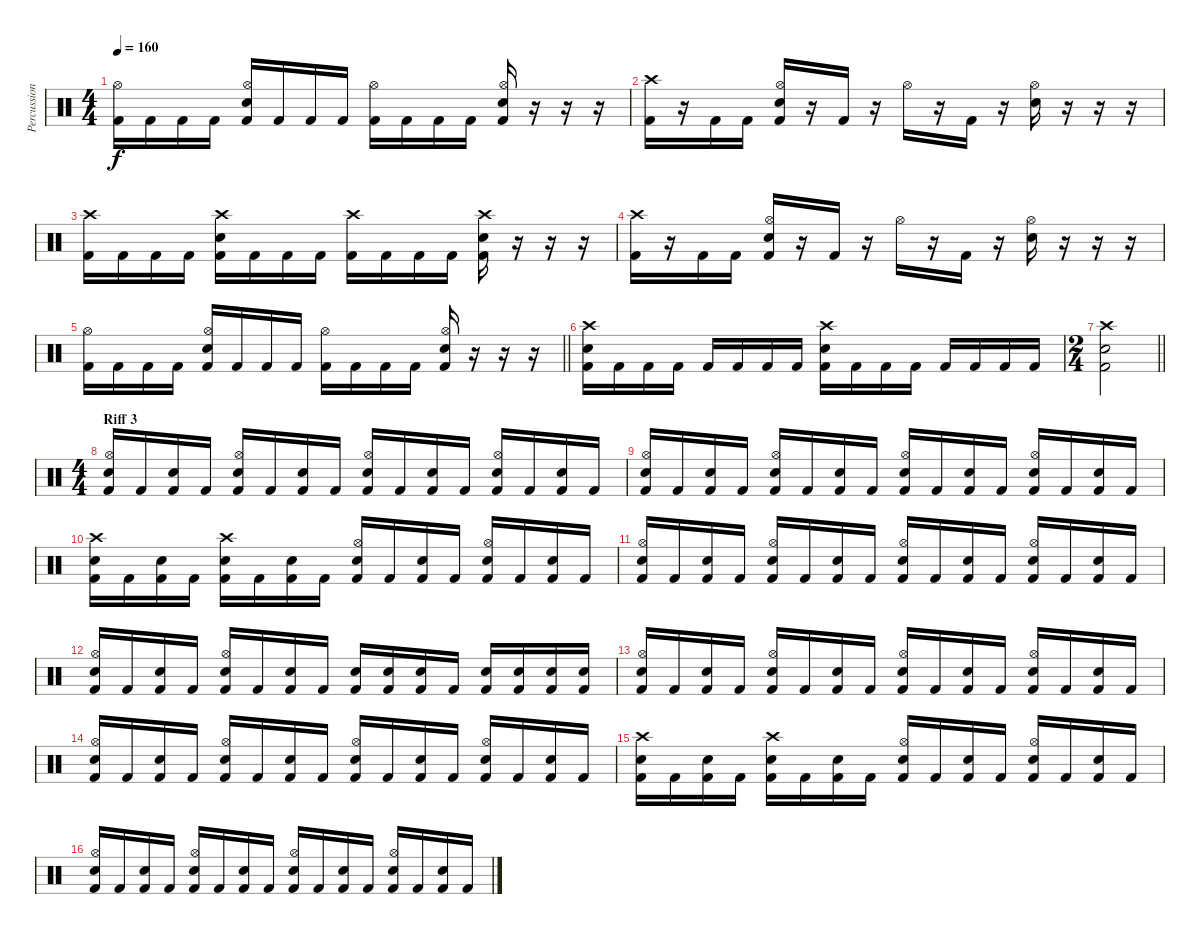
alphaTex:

\track ("Percussions" "Percussion") {instrument percussion bank 1}
\staff {score}
\articulation defaults
\ts (4 4)
\tempo 160
\clef neutral
\ks c
("Kick (hit) 2" "Hi-Hat (open)").16{dy f} "Kick (hit) 2".16 "Kick (hit) 2".16 "Kick (hit) 2".16 ("Kick (hit) 2" "Electric Snare (hit)" "Hi-Hat (open)").16 "Kick (hit) 2".16 "Kick (hit) 2".16 "Kick (hit) 2".16 ("Kick (hit) 2" "Hi-Hat (open)").16 "Kick (hit) 2".16 "Kick (hit) 2".16 "Kick (hit) 2".16 ("Kick (hit) 2" "Electric Snare (hit)" "Hi-Hat (open)").16 r.16 r.16 r.16 |
("Kick (hit) 2" "Crash high (hit)").16 r.16 "Kick (hit) 2".16 "Kick (hit) 2".16 ("Kick (hit) 2" "Electric Snare (hit)" "Hi-Hat (open)").16 r.16 "Kick (hit) 2".16 r.16 "Hi-Hat (open)".16 r.16 "Kick (hit) 2".16 r.16 ("Electric Snare (hit)" "Hi-Hat (open)").16 r.16 r.16 r.16 |
("Kick (hit) 2" "Crash high (hit)").16 "Kick (hit) 2".16 "Kick (hit) 2".16 "Kick (hit) 2".16 ("Kick (hit) 2" "Electric Snare (hit)" "Crash high (hit)").16 "Kick (hit) 2".16 "Kick (hit) 2".16 "Kick (hit) 2".16 ("Kick (hit) 2" "Crash high (hit)").16 "Kick (hit) 2".16 "Kick (hit) 2".16 "Kick (hit) 2".16 ("Kick (hit) 2" "Electric Snare (hit)" "Crash high (hit)").16 r.16 r.16 r.16 |
("Kick (hit) 2" "Crash high (hit)").16 r.16 "Kick (hit) 2".16 "Kick (hit) 2".16 ("Kick (hit) 2" "Electric Snare (hit)" "Hi-Hat (open)").16 r.16 "Kick (hit) 2".16 r.16 "Hi-Hat (open)".16 r.16 "Kick (hit) 2".16 r.16 ("Electric Snare (hit)" "Hi-Hat (open)").16 r.16 r.16 r.16 |
\barLineRight lightlight
("Kick (hit) 2" "Hi-Hat (open)").16 "Kick (hit) 2".16 "Kick (hit) 2".16 "Kick (hit) 2".16 ("Kick (hit) 2" "Electric Snare (hit)" "Hi-Hat (open)").16 "Kick (hit) 2".16 "Kick (hit) 2".16 "Kick (hit) 2".16 ("Kick (hit) 2" "Hi-Hat (open)").16 "Kick (hit) 2".16 "Kick (hit) 2".16 "Kick (hit) 2".16 ("Kick (hit) 2" "Electric Snare (hit)" "Hi-Hat (open)").16 r.16 r.16 r.16 |
("Kick (hit) 2" "Electric Snare (hit)" "Crash high (hit)").16 "Kick (hit) 2".16 "Kick (hit) 2".16 "Kick (hit) 2".16 "Kick (hit) 2".16 "Kick (hit) 2".16 "Kick (hit) 2".16 "Kick (hit) 2".16 ("Kick (hit) 2" "Electric Snare (hit)" "Crash high (hit)").16 "Kick (hit) 2".16 "Kick (hit) 2".16 "Kick (hit) 2".16 "Kick (hit) 2".16 "Kick (hit) 2".16 "Kick (hit) 2".16 "Kick (hit) 2".16 |
\ts (2 4)
\barLineRight lightlight
("Kick (hit) 2" "Electric Snare (hit)" "Crash high (hit)").2 |
\ts (4 4)
\section ("" "Riff 3")
("Kick (hit) 2" "Electric Snare (hit)" "Hi-Hat (open)").16 "Kick (hit) 2".16 ("Kick (hit) 2" "Electric Snare (hit)").16 "Kick (hit) 2".16 ("Kick (hit) 2" "Electric Snare (hit)" "Hi-Hat (open)").16 "Kick (hit) 2".16 ("Kick (hit) 2" "Electric Snare (hit)").16 "Kick (hit) 2".16 ("Kick (hit) 2" "Electric Snare (hit)" "Hi-Hat (open)").16 "Kick (hit) 2".16 ("Kick (hit) 2" "Electric Snare (hit)").16 "Kick (hit) 2".16 ("Kick (hit) 2" "Electric Snare (hit)" "Hi-Hat (open)").16 "Kick (hit) 2".16 ("Kick (hit) 2" "Electric Snare (hit)").16 "Kick (hit) 2".16 |
("Kick (hit) 2" "Electric Snare (hit)" "Hi-Hat (open)").16 "Kick (hit) 2".16 ("Kick (hit) 2" "Electric Snare (hit)").16 "Kick (hit) 2".16 ("Kick (hit) 2" "Electric Snare (hit)" "Hi-Hat (open)").16 "Kick (hit) 2".16 ("Kick (hit) 2" "Electric Snare (hit)").16 "Kick (hit) 2".16 ("Kick (hit) 2" "Electric Snare (hit)" "Hi-Hat (open)").16 "Kick (hit) 2".16 ("Kick (hit) 2" "Electric Snare (hit)").16 "Kick (hit) 2".16 ("Kick (hit) 2" "Electric Snare (hit)" "Hi-Hat (open)").16 "Kick (hit) 2".16 ("Kick (hit) 2" "Electric Snare (hit)").16 "Kick (hit) 2".16 |
("Kick (hit) 2" "Electric Snare (hit)" "Crash high (hit)").16 "Kick (hit) 2".16 ("Kick (hit) 2" "Electric Snare (hit)").16 "Kick (hit) 2".16 ("Kick (hit) 2" "Electric Snare (hit)" "Crash high (hit)").16 "Kick (hit) 2".16 ("Kick (hit) 2" "Electric Snare (hit)").16 "Kick (hit) 2".16 ("Kick (hit) 2" "Electric Snare (hit)" "Hi-Hat (open)").16 "Kick (hit) 2".16 ("Kick (hit) 2" "Electric Snare (hit)").16 "Kick (hit) 2".16 ("Kick (hit) 2" "Electric Snare (hit)" "Hi-Hat (open)").16 "Kick (hit) 2".16 ("Kick (hit) 2" "Electric Snare (hit)").16 "Kick (hit) 2".16 |
("Kick (hit) 2" "Electric Snare (hit)" "Hi-Hat (open)").16 "Kick (hit) 2".16 ("Kick (hit) 2" "Electric Snare (hit)").16 "Kick (hit) 2".16 ("Kick (hit) 2" "Electric Snare (hit)" "Hi-Hat (open)").16 "Kick (hit) 2".16 ("Kick (hit) 2" "Electric Snare (hit)").16 "Kick (hit) 2".16 ("Kick (hit) 2" "Electric Snare (hit)" "Hi-Hat (open)").16 "Kick (hit) 2".16 ("Kick (hit) 2" "Electric Snare (hit)").16 "Kick (hit) 2".16 ("Kick (hit) 2" "Electric Snare (hit)" "Hi-Hat (open)").16 "Kick (hit) 2".16 ("Kick (hit) 2" "Electric Snare (hit)").16 "Kick (hit) 2".16 |
("Kick (hit) 2" "Electric Snare (hit)" "Hi-Hat (open)").16 "Kick (hit) 2".16 ("Kick (hit) 2" "Electric Snare (hit)").16 "Kick (hit) 2".16 ("Kick (hit) 2" "Electric Snare (hit)" "Hi-Hat (open)").16 "Kick (hit) 2".16 ("Kick (hit) 2" "Electric Snare (hit)").16 "Kick (hit) 2".16 ("Kick (hit) 2" "Electric Snare (hit)").16 ("Kick (hit) 2" "Electric Snare (hit)").16 ("Kick (hit) 2" "Electric Snare (hit)").16 "Kick (hit) 2".16 ("Kick (hit) 2" "Electric Snare (hit)").16 ("Kick (hit) 2" "Electric Snare (hit)").16 ("Kick (hit) 2" "Electric Snare (hit)").16 ("Kick (hit) 2" "Electric Snare (hit)").16 |
("Kick (hit) 2" "Electric Snare (hit)" "Hi-Hat (open)").16 "Kick (hit) 2".16 ("Kick (hit) 2" "Electric Snare (hit)").16 "Kick (hit) 2".16 ("Kick (hit) 2" "Electric Snare (hit)" "Hi-Hat (open)").16 "Kick (hit) 2".16 ("Kick (hit) 2" "Electric Snare (hit)").16 "Kick (hit) 2".16 ("Kick (hit) 2" "Electric Snare (hit)" "Hi-Hat (open)").16 "Kick (hit) 2".16 ("Kick (hit) 2" "Electric Snare (hit)").16 "Kick (hit) 2".16 ("Kick (hit) 2" "Electric Snare (hit)" "Hi-Hat (open)").16 "Kick (hit) 2".16 ("Kick (hit) 2" "Electric Snare (hit)").16 "Kick (hit) 2".16 |
("Kick (hit) 2" "Electric Snare (hit)" "Hi-Hat (open)").16 "Kick (hit) 2".16 ("Kick (hit) 2" "Electric Snare (hit)").16 "Kick (hit) 2".16 ("Kick (hit) 2" "Electric Snare (hit)" "Hi-Hat (open)").16 "Kick (hit) 2".16 ("Kick (hit) 2" "Electric Snare (hit)").16 "Kick (hit) 2".16 ("Kick (hit) 2" "Electric Snare (hit)" "Hi-Hat (open)").16 "Kick (hit) 2".16 ("Kick (hit) 2" "Electric Snare (hit)").16 "Kick (hit) 2".16 ("Kick (hit) 2" "Electric Snare (hit)" "Hi-Hat (open)").16 "Kick (hit) 2".16 ("Kick (hit) 2" "Electric Snare (hit)").16 "Kick (hit) 2".16 |
("Kick (hit) 2" "Electric Snare (hit)" "Crash high (hit)").16 "Kick (hit) 2".16 ("Kick (hit) 2" "Electric Snare (hit)").16 "Kick (hit) 2".16 ("Kick (hit) 2" "Electric Snare (hit)" "Crash high (hit)").16 "Kick (hit) 2".16 ("Kick (hit) 2" "Electric Snare (hit)").16 "Kick (hit) 2".16 ("Kick (hit) 2" "Electric Snare (hit)" "Hi-Hat (open)").16 "Kick (hit) 2".16 ("Kick (hit) 2" "Electric Snare (hit)").16 "Kick (hit) 2".16 ("Kick (hit) 2" "Electric Snare (hit)" "Hi-Hat (open)").16 "Kick (hit) 2".16 ("Kick (hit) 2" "Electric Snare (hit)").16 "Kick (hit) 2".16 |
("Kick (hit) 2" "Electric Snare (hit)" "Hi-Hat (open)").16 "Kick (hit) 2".16 ("Kick (hit) 2" "Electric Snare (hit)").16 "Kick (hit) 2".16 ("Kick (hit) 2" "Electric Snare (hit)" "Hi-Hat (open)").16 "Kick (hit) 2".16 ("Kick (hit) 2" "Electric Snare (hit)").16 "Kick (hit) 2".16 ("Kick (hit) 2" "Electric Snare (hit)" "Hi-Hat (open)").16 "Kick (hit) 2".16 ("Kick (hit) 2" "Electric Snare (hit)").16 "Kick (hit) 2".16 ("Kick (hit) 2" "Electric Snare (hit)" "Hi-Hat (open)").16 "Kick (hit) 2".16 ("Kick (hit) 2" "Electric Snare (hit)").16 "Kick (hit) 2".16
